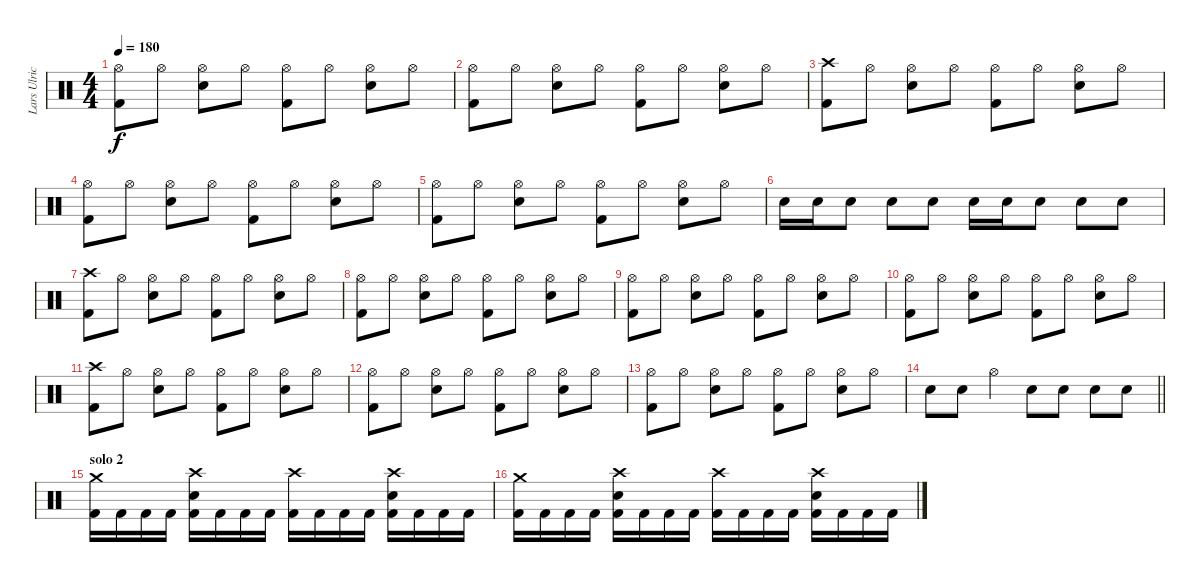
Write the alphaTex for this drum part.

\track ("Lars Ulrich" "Lars Ulric") {instrument percussion}
\staff {score}
\articulation defaults
\ts (4 4)
\tempo 180
\clef neutral
\ks c
("Hi-Hat (open)" "Kick (hit) 2").8{dy f} "Hi-Hat (open)".8 ("Hi-Hat (open)" "Snare (hit) 2").8 "Hi-Hat (open)".8 ("Hi-Hat (open)" "Kick (hit) 2").8 "Hi-Hat (open)".8 ("Hi-Hat (open)" "Snare (hit) 2").8 "Hi-Hat (open)".8 |
("Hi-Hat (open)" "Kick (hit) 2").8 "Hi-Hat (open)".8 ("Hi-Hat (open)" "Snare (hit) 2").8 "Hi-Hat (open)".8 ("Hi-Hat (open)" "Kick (hit) 2").8 "Hi-Hat (open)".8 ("Hi-Hat (open)" "Snare (hit) 2").8 "Hi-Hat (open)".8 |
("Crash high (hit)" "Kick (hit) 2").8 "Hi-Hat (open)".8 ("Hi-Hat (open)" "Snare (hit) 2").8 "Hi-Hat (open)".8 ("Hi-Hat (open)" "Kick (hit) 2").8 "Hi-Hat (open)".8 ("Hi-Hat (open)" "Snare (hit) 2").8 "Hi-Hat (open)".8 |
("Hi-Hat (open)" "Kick (hit) 2").8 "Hi-Hat (open)".8 ("Hi-Hat (open)" "Snare (hit) 2").8 "Hi-Hat (open)".8 ("Hi-Hat (open)" "Kick (hit) 2").8 "Hi-Hat (open)".8 ("Hi-Hat (open)" "Snare (hit) 2").8 "Hi-Hat (open)".8 |
("Hi-Hat (open)" "Kick (hit) 2").8 "Hi-Hat (open)".8 ("Hi-Hat (open)" "Snare (hit) 2").8 "Hi-Hat (open)".8 ("Hi-Hat (open)" "Kick (hit) 2").8 "Hi-Hat (open)".8 ("Hi-Hat (open)" "Snare (hit) 2").8 "Hi-Hat (open)".8 |
"Snare (hit) 2".16 "Snare (hit) 2".16 "Snare (hit) 2".8 "Snare (hit) 2".8 "Snare (hit) 2".8 "Snare (hit) 2".16 "Snare (hit) 2".16 "Snare (hit) 2".8 "Snare (hit) 2".8 "Snare (hit) 2".8 |
("Crash high (hit)" "Kick (hit) 2").8 "Hi-Hat (open)".8 ("Hi-Hat (open)" "Snare (hit) 2").8 "Hi-Hat (open)".8 ("Hi-Hat (open)" "Kick (hit) 2").8 "Hi-Hat (open)".8 ("Hi-Hat (open)" "Snare (hit) 2").8 "Hi-Hat (open)".8 |
("Hi-Hat (open)" "Kick (hit) 2").8 "Hi-Hat (open)".8 ("Hi-Hat (open)" "Snare (hit) 2").8 "Hi-Hat (open)".8 ("Hi-Hat (open)" "Kick (hit) 2").8 "Hi-Hat (open)".8 ("Hi-Hat (open)" "Snare (hit) 2").8 "Hi-Hat (open)".8 |
("Hi-Hat (open)" "Kick (hit) 2").8 "Hi-Hat (open)".8 ("Hi-Hat (open)" "Snare (hit) 2").8 "Hi-Hat (open)".8 ("Hi-Hat (open)" "Kick (hit) 2").8 "Hi-Hat (open)".8 ("Hi-Hat (open)" "Snare (hit) 2").8 "Hi-Hat (open)".8 |
("Hi-Hat (open)" "Kick (hit) 2").8 "Hi-Hat (open)".8 ("Hi-Hat (open)" "Snare (hit) 2").8 "Hi-Hat (open)".8 ("Hi-Hat (open)" "Kick (hit) 2").8 "Hi-Hat (open)".8 ("Hi-Hat (open)" "Snare (hit) 2").8 "Hi-Hat (open)".8 |
("Crash high (hit)" "Kick (hit) 2").8 "Hi-Hat (open)".8 ("Hi-Hat (open)" "Snare (hit) 2").8 "Hi-Hat (open)".8 ("Hi-Hat (open)" "Kick (hit) 2").8 "Hi-Hat (open)".8 ("Hi-Hat (open)" "Snare (hit) 2").8 "Hi-Hat (open)".8 |
("Hi-Hat (open)" "Kick (hit) 2").8 "Hi-Hat (open)".8 ("Hi-Hat (open)" "Snare (hit) 2").8 "Hi-Hat (open)".8 ("Hi-Hat (open)" "Kick (hit) 2").8 "Hi-Hat (open)".8 ("Hi-Hat (open)" "Snare (hit) 2").8 "Hi-Hat (open)".8 |
("Hi-Hat (open)" "Kick (hit) 2").8 "Hi-Hat (open)".8 ("Hi-Hat (open)" "Snare (hit) 2").8 "Hi-Hat (open)".8 ("Hi-Hat (open)" "Kick (hit) 2").8 "Hi-Hat (open)".8 ("Hi-Hat (open)" "Snare (hit) 2").8 "Hi-Hat (open)".8 |
\barLineRight lightlight "Snare (hit) 2".8 "Snare (hit) 2".8 "Hi-Hat (open)".4 "Snare (hit) 2".8 "Snare (hit) 2".8 "Snare (hit) 2".8 "Snare (hit) 2".8
|
\section ("" "solo 2")
("Crash medium (hit)" "Kick (hit) 2").16 "Kick (hit) 2".16 "Kick (hit) 2".16 "Kick (hit) 2".16 ("Crash high (hit)" "Snare (hit) 2" "Kick (hit) 2").16 "Kick (hit) 2".16 "Kick (hit) 2".16 "Kick (hit) 2".16 ("Crash high (hit)" "Kick (hit) 2").16 "Kick (hit) 2".16 "Kick (hit) 2".16 "Kick (hit) 2".16 ("Crash high (hit)" "Snare (hit) 2" "Kick (hit) 2").16 "Kick (hit) 2".16 "Kick (hit) 2".16 "Kick (hit) 2".16 |
("Crash medium (hit)" "Kick (hit) 2").16 "Kick (hit) 2".16 "Kick (hit) 2".16 "Kick (hit) 2".16 ("Crash high (hit)" "Snare (hit) 2" "Kick (hit) 2").16 "Kick (hit) 2".16 "Kick (hit) 2".16 "Kick (hit) 2".16 ("Crash high (hit)" "Kick (hit) 2").16 "Kick (hit) 2".16 "Kick (hit) 2".16 "Kick (hit) 2".16 ("Crash high (hit)" "Snare (hit) 2" "Kick (hit) 2").16 "Kick (hit) 2".16 "Kick (hit) 2".16 "Kick (hit) 2".16
